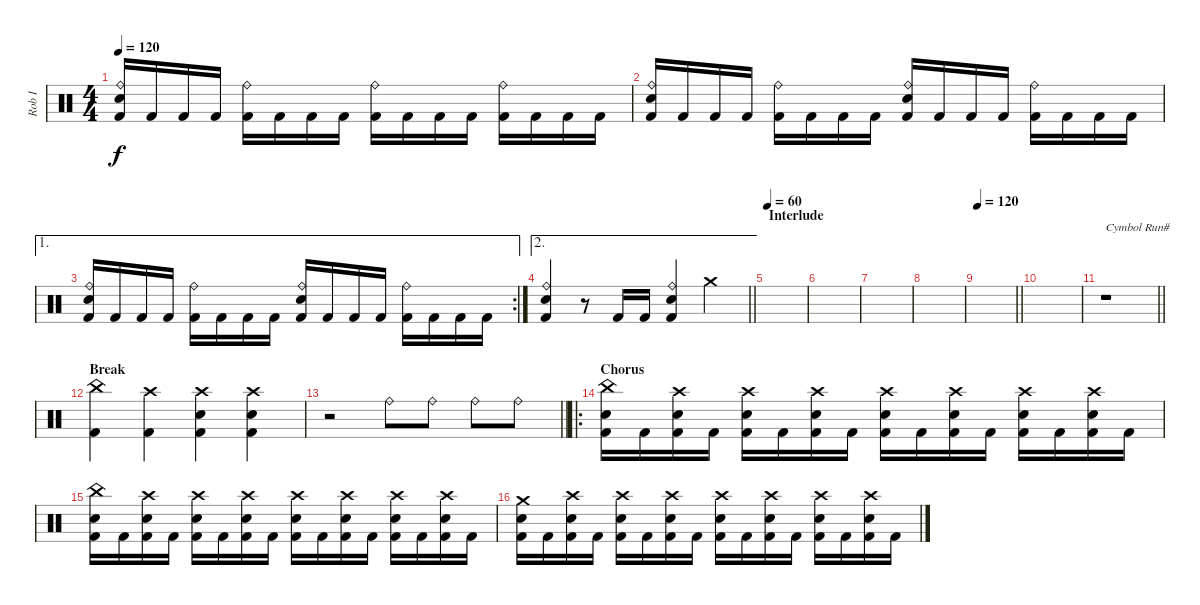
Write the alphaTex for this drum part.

\track ("Rob I" "Rob I") {instrument percussion}
\staff {score}
\articulation defaults
\ts (4 4)
\tempo 120
\clef neutral
\ks c
("Kick (hit) 2" "Ride (bell)" "Electric Snare (hit)").16{dy f} "Kick (hit) 2".16 "Kick (hit) 2".16 "Kick (hit) 2".16 ("Kick (hit) 2" "Ride (bell)").16 "Kick (hit) 2".16 "Kick (hit) 2".16 "Kick (hit) 2".16 ("Kick (hit) 2" "Ride (bell)").16 "Kick (hit) 2".16 "Kick (hit) 2".16 "Kick (hit) 2".16 ("Kick (hit) 2" "Ride (bell)").16 "Kick (hit) 2".16 "Kick (hit) 2".16 "Kick (hit) 2".16 |
("Kick (hit) 2" "Ride (bell)" "Electric Snare (hit)").16 "Kick (hit) 2".16 "Kick (hit) 2".16 "Kick (hit) 2".16 ("Kick (hit) 2" "Ride (bell)").16 "Kick (hit) 2".16 "Kick (hit) 2".16 "Kick (hit) 2".16 ("Kick (hit) 2" "Ride (bell)" "Electric Snare (hit)").16 "Kick (hit) 2".16 "Kick (hit) 2".16 "Kick (hit) 2".16 ("Kick (hit) 2" "Ride (bell)").16 "Kick (hit) 2".16 "Kick (hit) 2".16 "Kick (hit) 2".16 |
\ae 1
\rc 2
("Kick (hit) 2" "Ride (bell)" "Electric Snare (hit)").16 "Kick (hit) 2".16 "Kick (hit) 2".16 "Kick (hit) 2".16 ("Kick (hit) 2" "Ride (bell)").16 "Kick (hit) 2".16 "Kick (hit) 2".16 "Kick (hit) 2".16 ("Kick (hit) 2" "Ride (bell)" "Electric Snare (hit)").16 "Kick (hit) 2".16 "Kick (hit) 2".16 "Kick (hit) 2".16 ("Kick (hit) 2" "Ride (bell)").16 "Kick (hit) 2".16 "Kick (hit) 2".16 "Kick (hit) 2".16 |
\ae 2
\barLineRight lightlight
("Electric Snare (hit)" "Ride (bell)" "Kick (hit) 2").4 r.8 "Kick (hit) 2".16 "Kick (hit) 2".16 ("Electric Snare (hit)" "Ride (bell)" "Kick (hit) 2").4 "Crash medium (hit)".4 |
\section ("" "Interlude")
\tempo 60
|
|
|
|
\tempo 120
\barLineRight lightlight
|
|
\barLineRight lightlight
r.1{txt "Cymbol Run#"} |
\section ("" "Break")
("Kick (hit) 2" "China (hit)").4 ("Crash high (hit)" "Kick (hit) 2").4 ("Crash high (hit)" "Kick (hit) 2" "Electric Snare (hit)").4 ("Crash high (hit)" "Kick (hit) 2" "Electric Snare (hit)").4 |
\barLineRight lightlight
r.2 "Ride (bell)".8 "Ride (bell)".8 "Ride (bell)".8 "Ride (bell)".8 |
\ro
\section ("" "Chorus")
("Kick (hit) 2" "China (hit)" "Electric Snare (hit)").16 "Kick (hit) 2".16 ("Kick (hit) 2" "Crash high (hit)" "Electric Snare (hit)").16 "Kick (hit) 2".16 ("Kick (hit) 2" "Crash high (hit)" "Electric Snare (hit)").16 "Kick (hit) 2".16 ("Kick (hit) 2" "Crash high (hit)" "Electric Snare (hit)").16 "Kick (hit) 2".16 ("Kick (hit) 2" "Crash high (hit)" "Electric Snare (hit)").16 "Kick (hit) 2".16 ("Kick (hit) 2" "Crash high (hit)" "Electric Snare (hit)").16 "Kick (hit) 2".16 ("Kick (hit) 2" "Crash high (hit)" "Electric Snare (hit)").16 "Kick (hit) 2".16 ("Kick (hit) 2" "Crash high (hit)" "Electric Snare (hit)").16 "Kick (hit) 2".16 |
("Kick (hit) 2" "China (hit)" "Electric Snare (hit)").16 "Kick (hit) 2".16 ("Kick (hit) 2" "Crash high (hit)" "Electric Snare (hit)").16 "Kick (hit) 2".16 ("Kick (hit) 2" "Crash high (hit)" "Electric Snare (hit)").16 "Kick (hit) 2".16 ("Kick (hit) 2" "Crash high (hit)" "Electric Snare (hit)").16 "Kick (hit) 2".16 ("Kick (hit) 2" "Crash high (hit)" "Electric Snare (hit)").16 "Kick (hit) 2".16 ("Kick (hit) 2" "Crash high (hit)" "Electric Snare (hit)").16 "Kick (hit) 2".16 ("Kick (hit) 2" "Crash high (hit)" "Electric Snare (hit)").16 "Kick (hit) 2".16 ("Kick (hit) 2" "Crash high (hit)" "Electric Snare (hit)").16 "Kick (hit) 2".16 |
("Kick (hit) 2" "Crash medium (hit)" "Electric Snare (hit)").16 "Kick (hit) 2".16 ("Kick (hit) 2" "Crash high (hit)" "Electric Snare (hit)").16 "Kick (hit) 2".16 ("Kick (hit) 2" "Crash high (hit)" "Electric Snare (hit)").16 "Kick (hit) 2".16 ("Kick (hit) 2" "Crash high (hit)" "Electric Snare (hit)").16 "Kick (hit) 2".16 ("Kick (hit) 2" "Crash high (hit)" "Electric Snare (hit)").16 "Kick (hit) 2".16 ("Kick (hit) 2" "Crash high (hit)" "Electric Snare (hit)").16 "Kick (hit) 2".16 ("Kick (hit) 2" "Crash high (hit)" "Electric Snare (hit)").16 "Kick (hit) 2".16 ("Kick (hit) 2" "Crash high (hit)" "Electric Snare (hit)").16 "Kick (hit) 2".16
